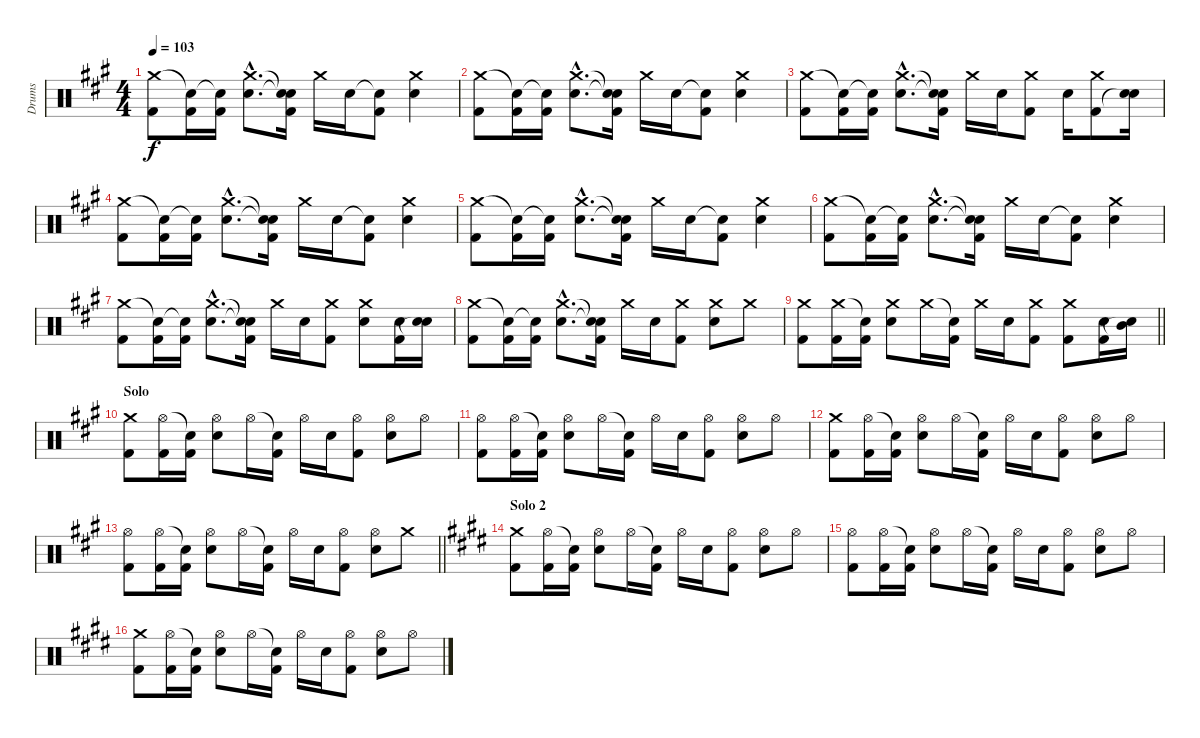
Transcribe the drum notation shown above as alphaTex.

\track ("Drums" "Drums") {instrument percussion}
\staff {score}
\articulation defaults
\ts (4 4)
\tempo 103
\clef neutral
\ks f#minor
("Crash medium (hit)" "Kick (hit) 2").8{dy f} ("Snare (hit)"{t} "Kick (hit) 2").16 ("Snare (hit)"{t} "Kick (hit) 2").16 ("Crash medium (hit)"{hac} "Electric Snare (hit)"{hac}).8{d} ("Snare (hit)"{t} "Snare (hit)"{t} "Kick (hit) 2").16 "Crash medium (hit)".16 "Electric Snare (hit)".16 ("Snare (hit)"{t} "Kick (hit) 2").8 ("Crash medium (hit)" "Electric Snare (hit)").4 |
("Crash medium (hit)" "Kick (hit) 2").8 ("Snare (hit)"{t} "Kick (hit) 2").16 ("Snare (hit)"{t} "Kick (hit) 2").16 ("Crash medium (hit)"{hac} "Electric Snare (hit)"{hac}).8{d} ("Snare (hit)"{t} "Snare (hit)"{t} "Kick (hit) 2").16 "Crash medium (hit)".16 "Electric Snare (hit)".16 ("Snare (hit)"{t} "Kick (hit) 2").8 ("Crash medium (hit)" "Electric Snare (hit)").4 |
("Crash medium (hit)" "Kick (hit) 2").8 ("Snare (hit)"{t} "Kick (hit) 2").16 ("Snare (hit)"{t} "Kick (hit) 2").16 ("Crash medium (hit)"{hac} "Electric Snare (hit)"{hac}).8{d} ("Snare (hit)"{t} "Snare (hit)"{t} "Kick (hit) 2").16 "Crash medium (hit)".16 "Electric Snare (hit)".16 ("Crash medium (hit)" "Kick (hit) 2").8 "Electric Snare (hit)".16 ("Crash medium (hit)" "Kick (hit) 2").8 ("Electric Snare (hit)" "Snare (hit)"{t}).16 |
("Crash medium (hit)" "Kick (hit) 2").8 ("Snare (hit)"{t} "Kick (hit) 2").16 ("Snare (hit)"{t} "Kick (hit) 2").16 ("Crash medium (hit)"{hac} "Electric Snare (hit)"{hac}).8{d} ("Snare (hit)"{t} "Snare (hit)"{t} "Kick (hit) 2").16 "Crash medium (hit)".16 "Electric Snare (hit)".16 ("Snare (hit)"{t} "Kick (hit) 2").8 ("Crash medium (hit)" "Electric Snare (hit)").4 |
("Crash medium (hit)" "Kick (hit) 2").8 ("Snare (hit)"{t} "Kick (hit) 2").16 ("Snare (hit)"{t} "Kick (hit) 2").16 ("Crash medium (hit)"{hac} "Electric Snare (hit)"{hac}).8{d} ("Snare (hit)"{t} "Snare (hit)"{t} "Kick (hit) 2").16 "Crash medium (hit)".16 "Electric Snare (hit)".16 ("Snare (hit)"{t} "Kick (hit) 2").8 ("Crash medium (hit)" "Electric Snare (hit)").4 |
("Crash medium (hit)" "Kick (hit) 2").8 ("Snare (hit)"{t} "Kick (hit) 2").16 ("Snare (hit)"{t} "Kick (hit) 2").16 ("Crash medium (hit)"{hac} "Electric Snare (hit)"{hac}).8{d} ("Snare (hit)"{t} "Snare (hit)"{t} "Kick (hit) 2").16 "Crash medium (hit)".16 "Electric Snare (hit)".16 ("Snare (hit)"{t} "Kick (hit) 2").8 ("Crash medium (hit)" "Electric Snare (hit)").4 |
("Crash medium (hit)" "Kick (hit) 2").8 ("Snare (hit)"{t} "Kick (hit) 2").16 ("Snare (hit)"{t} "Kick (hit) 2").16 ("Crash medium (hit)"{hac} "Electric Snare (hit)"{hac}).8{d} ("Snare (hit)"{t} "Snare (hit)"{t} "Kick (hit) 2").16 "Crash medium (hit)".16 "Electric Snare (hit)".16 ("Crash medium (hit)" "Kick (hit) 2").8 ("Crash medium (hit)" "Electric Snare (hit)").8 ("Electric Snare (hit)" "Kick (hit) 2").16 ("Electric Snare (hit)" "Snare (hit)"{t}).16 |
("Crash medium (hit)" "Kick (hit) 2").8 ("Snare (hit)"{t} "Kick (hit) 2").16 ("Snare (hit)"{t} "Kick (hit) 2").16 ("Crash medium (hit)"{hac} "Electric Snare (hit)"{hac}).8{d} ("Snare (hit)"{t} "Snare (hit)"{t} "Kick (hit) 2").16 "Crash medium (hit)".16 "Electric Snare (hit)".16 ("Crash medium (hit)" "Kick (hit) 2").8 ("Crash medium (hit)" "Electric Snare (hit)").8 "Crash medium (hit)".8 |
\barLineRight lightlight
("Crash medium (hit)" "Kick (hit) 2").8 ("Crash medium (hit)" "Kick (hit) 2").16 ("Snare (hit)"{t} "Kick (hit) 2").16 ("Crash medium (hit)" "Electric Snare (hit)").8 "Crash medium (hit)".16 ("Snare (hit)"{t} "Kick (hit) 2").16 "Crash medium (hit)".16 "Electric Snare (hit)".16 ("Crash medium (hit)" "Kick (hit) 2").8 ("Crash medium (hit)" "Kick (hit) 2").8 ("Electric Snare (hit)" "Kick (hit) 2").16 ("Mid Tom (hit)" "Snare (hit)"{t}).16 |
\section ("" "Solo")
("Crash medium (hit)" "Kick (hit) 2").8 ("Hi-Hat (open)" "Kick (hit) 2").16 ("Snare (hit)"{t} "Kick (hit) 2").16 ("Hi-Hat (open)" "Electric Snare (hit)").8 "Hi-Hat (open)".16 ("Snare (hit)"{t} "Kick (hit) 2").16 "Hi-Hat (open)".16 "Electric Snare (hit)".16 ("Hi-Hat (open)" "Kick (hit) 2").8 ("Hi-Hat (open)" "Electric Snare (hit)").8 "Hi-Hat (open)".8 |
("Hi-Hat (open)" "Kick (hit) 2").8 ("Hi-Hat (open)" "Kick (hit) 2").16 ("Snare (hit)"{t} "Kick (hit) 2").16 ("Hi-Hat (open)" "Electric Snare (hit)").8 "Hi-Hat (open)".16 ("Snare (hit)"{t} "Kick (hit) 2").16 "Hi-Hat (open)".16 "Electric Snare (hit)".16 ("Hi-Hat (open)" "Kick (hit) 2").8 ("Hi-Hat (open)" "Electric Snare (hit)").8 "Hi-Hat (open)".8 |
("Crash medium (hit)" "Kick (hit) 2").8 ("Hi-Hat (open)" "Kick (hit) 2").16 ("Snare (hit)"{t} "Kick (hit) 2").16 ("Hi-Hat (open)" "Electric Snare (hit)").8 "Hi-Hat (open)".16 ("Snare (hit)"{t} "Kick (hit) 2").16 "Hi-Hat (open)".16 "Electric Snare (hit)".16 ("Hi-Hat (open)" "Kick (hit) 2").8 ("Hi-Hat (open)" "Electric Snare (hit)").8 "Hi-Hat (open)".8 |
\barLineRight lightlight
("Hi-Hat (open)" "Kick (hit) 2").8 ("Hi-Hat (open)" "Kick (hit) 2").16 ("Snare (hit)"{t} "Kick (hit) 2").16 ("Hi-Hat (open)" "Electric Snare (hit)").8 "Hi-Hat (open)".16 ("Snare (hit)"{t} "Kick (hit) 2").16 "Hi-Hat (open)".16 "Electric Snare (hit)".16 ("Hi-Hat (open)" "Kick (hit) 2").8 ("Hi-Hat (open)" "Electric Snare (hit)").8 "Crash medium (hit)".8 |
\section ("" "Solo 2")
\ks c#minor
("Crash medium (hit)" "Kick (hit) 2").8 ("Hi-Hat (open)" "Kick (hit) 2").16 ("Snare (hit)"{t} "Kick (hit) 2").16 ("Hi-Hat (open)" "Electric Snare (hit)").8 "Hi-Hat (open)".16 ("Snare (hit)"{t} "Kick (hit) 2").16 "Hi-Hat (open)".16 "Electric Snare (hit)".16 ("Hi-Hat (open)" "Kick (hit) 2").8 ("Hi-Hat (open)" "Electric Snare (hit)").8 "Hi-Hat (open)".8 |
("Hi-Hat (open)" "Kick (hit) 2").8 ("Hi-Hat (open)" "Kick (hit) 2").16 ("Snare (hit)"{t} "Kick (hit) 2").16 ("Hi-Hat (open)" "Electric Snare (hit)").8 "Hi-Hat (open)".16 ("Snare (hit)"{t} "Kick (hit) 2").16 "Hi-Hat (open)".16 "Electric Snare (hit)".16 ("Hi-Hat (open)" "Kick (hit) 2").8 ("Hi-Hat (open)" "Electric Snare (hit)").8 "Hi-Hat (open)".8 |
("Crash medium (hit)" "Kick (hit) 2").8 ("Hi-Hat (open)" "Kick (hit) 2").16 ("Snare (hit)"{t} "Kick (hit) 2").16 ("Hi-Hat (open)" "Electric Snare (hit)").8 "Hi-Hat (open)".16 ("Snare (hit)"{t} "Kick (hit) 2").16 "Hi-Hat (open)".16 "Electric Snare (hit)".16 ("Hi-Hat (open)" "Kick (hit) 2").8 ("Hi-Hat (open)" "Electric Snare (hit)").8 "Hi-Hat (open)".8
